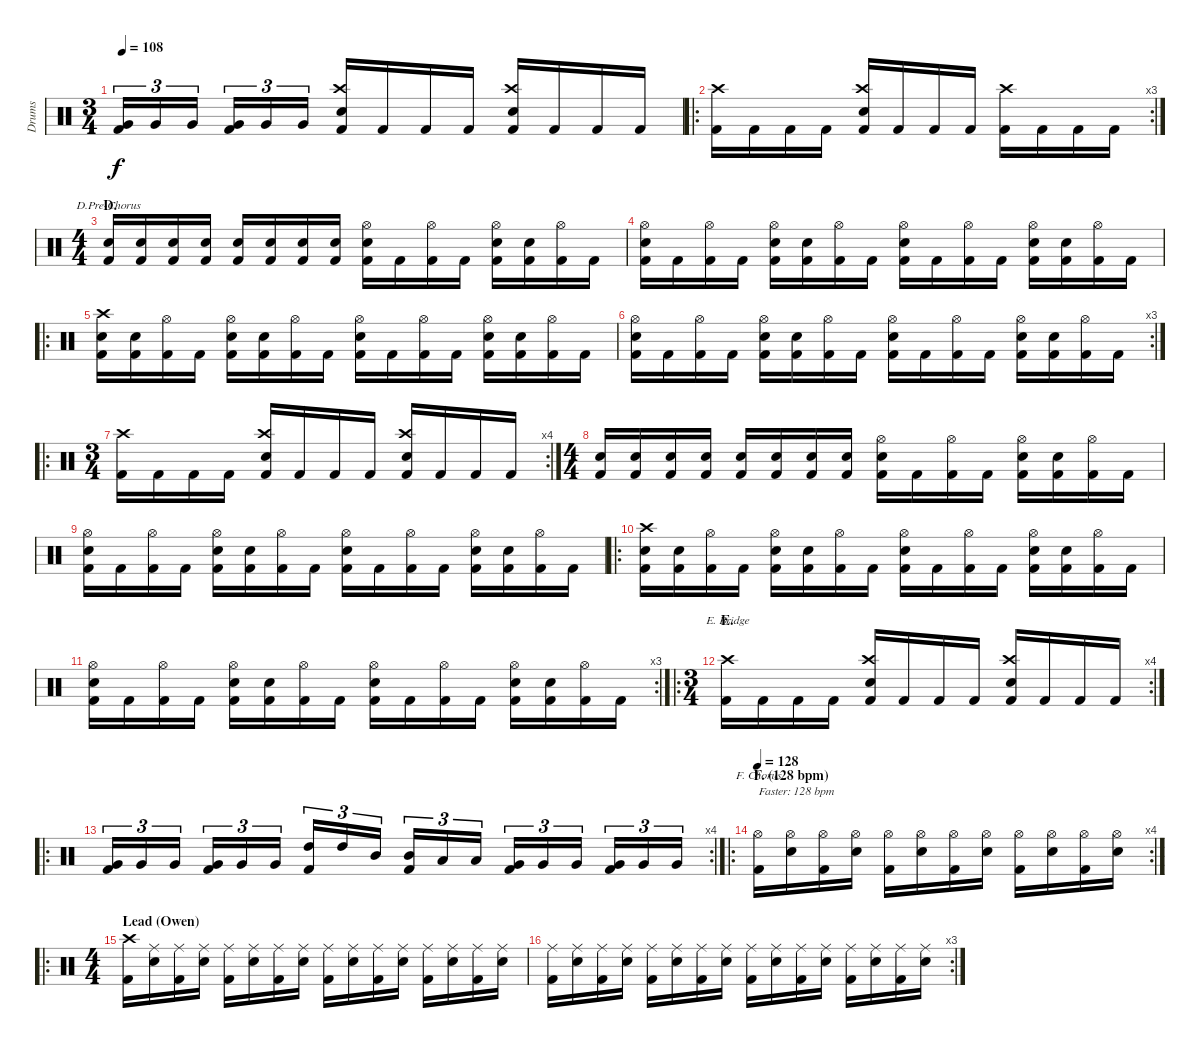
\track ("Drums" "Drums") {instrument percussion}
\staff {score}
\articulation defaults
\chord ("D.Pre-Chorus")
\chord ("E. Bridge")
\chord ("F. Chorus")
\ts (3 4)
\tempo 108
\clef neutral
\ks c
("Very Low Tom (hit)" "Kick (hit) 2").16{tu (3 2) dy f} "Very Low Tom (hit)".16{tu (3 2)} "Very Low Tom (hit)".16{tu (3 2)} ("Very Low Tom (hit)" "Kick (hit) 2").16{tu (3 2)} "Very Low Tom (hit)".16{tu (3 2)} "Very Low Tom (hit)".16{tu (3 2)} ("Crash high (hit)" "Electric Snare (hit)" "Kick (hit) 2").16 "Kick (hit) 2".16 "Kick (hit) 2".16 "Kick (hit) 2".16 ("Crash high (hit)" "Electric Snare (hit)" "Kick (hit) 2").16 "Kick (hit) 2".16 "Kick (hit) 2".16 "Kick (hit) 2".16 |
\ro
\rc 3
("Crash high (hit)" "Kick (hit) 2").16 "Kick (hit) 2".16 "Kick (hit) 2".16 "Kick (hit) 2".16 ("Crash high (hit)" "Electric Snare (hit)" "Kick (hit) 2").16 "Kick (hit) 2".16 "Kick (hit) 2".16 "Kick (hit) 2".16 ("Crash high (hit)" "Kick (hit) 2").16 "Kick (hit) 2".16 "Kick (hit) 2".16 "Kick (hit) 2".16 |
\ts (4 4)
\section ("" "D.")
("Electric Snare (hit)" "Kick (hit) 2").16{ch "D.Pre-Chorus"} ("Electric Snare (hit)" "Kick (hit) 2").16 ("Electric Snare (hit)" "Kick (hit) 2").16 ("Electric Snare (hit)" "Kick (hit) 2").16 ("Electric Snare (hit)" "Kick (hit) 2").16 ("Electric Snare (hit)" "Kick (hit) 2").16 ("Electric Snare (hit)" "Kick (hit) 2").16 ("Electric Snare (hit)" "Kick (hit) 2").16 ("Hi-Hat (open)" "Electric Snare (hit)" "Kick (hit) 2").16 "Kick (hit) 2".16 ("Hi-Hat (open)" "Kick (hit) 2").16 "Kick (hit) 2".16 ("Hi-Hat (open)" "Electric Snare (hit)" "Kick (hit) 2").16 ("Electric Snare (hit)" "Kick (hit) 2").16 ("Hi-Hat (open)" "Kick (hit) 2").16 "Kick (hit) 2".16 |
("Hi-Hat (open)" "Electric Snare (hit)" "Kick (hit) 2").16 "Kick (hit) 2".16 ("Hi-Hat (open)" "Kick (hit) 2").16 "Kick (hit) 2".16 ("Hi-Hat (open)" "Electric Snare (hit)" "Kick (hit) 2").16 ("Electric Snare (hit)" "Kick (hit) 2").16 ("Hi-Hat (open)" "Kick (hit) 2").16 "Kick (hit) 2".16 ("Hi-Hat (open)" "Electric Snare (hit)" "Kick (hit) 2").16 "Kick (hit) 2".16 ("Hi-Hat (open)" "Kick (hit) 2").16 "Kick (hit) 2".16 ("Hi-Hat (open)" "Electric Snare (hit)" "Kick (hit) 2").16 ("Electric Snare (hit)" "Kick (hit) 2").16 ("Hi-Hat (open)" "Kick (hit) 2").16 "Kick (hit) 2".16 |
\ro
("Crash high (hit)" "Electric Snare (hit)" "Kick (hit) 2").16 ("Electric Snare (hit)" "Kick (hit) 2").16 ("Hi-Hat (open)" "Kick (hit) 2").16 "Kick (hit) 2".16 ("Hi-Hat (open)" "Electric Snare (hit)" "Kick (hit) 2").16 ("Electric Snare (hit)" "Kick (hit) 2").16 ("Hi-Hat (open)" "Kick (hit) 2").16 "Kick (hit) 2".16 ("Hi-Hat (open)" "Electric Snare (hit)" "Kick (hit) 2").16 "Kick (hit) 2".16 ("Hi-Hat (open)" "Kick (hit) 2").16 "Kick (hit) 2".16 ("Hi-Hat (open)" "Electric Snare (hit)" "Kick (hit) 2").16 ("Electric Snare (hit)" "Kick (hit) 2").16 ("Hi-Hat (open)" "Kick (hit) 2").16 "Kick (hit) 2".16 |
\rc 3
("Hi-Hat (open)" "Electric Snare (hit)" "Kick (hit) 2").16 "Kick (hit) 2".16 ("Hi-Hat (open)" "Kick (hit) 2").16 "Kick (hit) 2".16 ("Hi-Hat (open)" "Electric Snare (hit)" "Kick (hit) 2").16 ("Electric Snare (hit)" "Kick (hit) 2").16 ("Hi-Hat (open)" "Kick (hit) 2").16 "Kick (hit) 2".16 ("Hi-Hat (open)" "Electric Snare (hit)" "Kick (hit) 2").16 "Kick (hit) 2".16 ("Hi-Hat (open)" "Kick (hit) 2").16 "Kick (hit) 2".16 ("Hi-Hat (open)" "Electric Snare (hit)" "Kick (hit) 2").16 ("Electric Snare (hit)" "Kick (hit) 2").16 ("Hi-Hat (open)" "Kick (hit) 2").16 "Kick (hit) 2".16 |
\ro
\rc 4
\ts (3 4)
("Crash high (hit)" "Kick (hit) 2").16 "Kick (hit) 2".16 "Kick (hit) 2".16 "Kick (hit) 2".16 ("Crash high (hit)" "Electric Snare (hit)" "Kick (hit) 2").16 "Kick (hit) 2".16 "Kick (hit) 2".16 "Kick (hit) 2".16 ("Crash high (hit)" "Electric Snare (hit)" "Kick (hit) 2").16 "Kick (hit) 2".16 "Kick (hit) 2".16 "Kick (hit) 2".16 |
\ts (4 4)
("Electric Snare (hit)" "Kick (hit) 2").16 ("Electric Snare (hit)" "Kick (hit) 2").16 ("Electric Snare (hit)" "Kick (hit) 2").16 ("Electric Snare (hit)" "Kick (hit) 2").16 ("Electric Snare (hit)" "Kick (hit) 2").16 ("Electric Snare (hit)" "Kick (hit) 2").16 ("Electric Snare (hit)" "Kick (hit) 2").16 ("Electric Snare (hit)" "Kick (hit) 2").16 ("Hi-Hat (open)" "Electric Snare (hit)" "Kick (hit) 2").16 "Kick (hit) 2".16 ("Hi-Hat (open)" "Kick (hit) 2").16 "Kick (hit) 2".16 ("Hi-Hat (open)" "Electric Snare (hit)" "Kick (hit) 2").16 ("Electric Snare (hit)" "Kick (hit) 2").16 ("Hi-Hat (open)" "Kick (hit) 2").16 "Kick (hit) 2".16 |
("Hi-Hat (open)" "Electric Snare (hit)" "Kick (hit) 2").16 "Kick (hit) 2".16 ("Hi-Hat (open)" "Kick (hit) 2").16 "Kick (hit) 2".16 ("Hi-Hat (open)" "Electric Snare (hit)" "Kick (hit) 2").16 ("Electric Snare (hit)" "Kick (hit) 2").16 ("Hi-Hat (open)" "Kick (hit) 2").16 "Kick (hit) 2".16 ("Hi-Hat (open)" "Electric Snare (hit)" "Kick (hit) 2").16 "Kick (hit) 2".16 ("Hi-Hat (open)" "Kick (hit) 2").16 "Kick (hit) 2".16 ("Hi-Hat (open)" "Electric Snare (hit)" "Kick (hit) 2").16 ("Electric Snare (hit)" "Kick (hit) 2").16 ("Hi-Hat (open)" "Kick (hit) 2").16 "Kick (hit) 2".16 |
\ro
("Crash high (hit)" "Electric Snare (hit)" "Kick (hit) 2").16 ("Electric Snare (hit)" "Kick (hit) 2").16 ("Hi-Hat (open)" "Kick (hit) 2").16 "Kick (hit) 2".16 ("Hi-Hat (open)" "Electric Snare (hit)" "Kick (hit) 2").16 ("Electric Snare (hit)" "Kick (hit) 2").16 ("Hi-Hat (open)" "Kick (hit) 2").16 "Kick (hit) 2".16 ("Hi-Hat (open)" "Electric Snare (hit)" "Kick (hit) 2").16 "Kick (hit) 2".16 ("Hi-Hat (open)" "Kick (hit) 2").16 "Kick (hit) 2".16 ("Hi-Hat (open)" "Electric Snare (hit)" "Kick (hit) 2").16 ("Electric Snare (hit)" "Kick (hit) 2").16 ("Hi-Hat (open)" "Kick (hit) 2").16 "Kick (hit) 2".16 |
\rc 3
("Hi-Hat (open)" "Electric Snare (hit)" "Kick (hit) 2").16 "Kick (hit) 2".16 ("Hi-Hat (open)" "Kick (hit) 2").16 "Kick (hit) 2".16 ("Hi-Hat (open)" "Electric Snare (hit)" "Kick (hit) 2").16 ("Electric Snare (hit)" "Kick (hit) 2").16 ("Hi-Hat (open)" "Kick (hit) 2").16 "Kick (hit) 2".16 ("Hi-Hat (open)" "Electric Snare (hit)" "Kick (hit) 2").16 "Kick (hit) 2".16 ("Hi-Hat (open)" "Kick (hit) 2").16 "Kick (hit) 2".16 ("Hi-Hat (open)" "Electric Snare (hit)" "Kick (hit) 2").16 ("Electric Snare (hit)" "Kick (hit) 2").16 ("Hi-Hat (open)" "Kick (hit) 2").16 "Kick (hit) 2".16 |
\ro
\rc 4
\ts (3 4)
\section ("" "E.")
("Crash high (hit)" "Kick (hit) 2").16{ch "E. Bridge"} "Kick (hit) 2".16 "Kick (hit) 2".16 "Kick (hit) 2".16 ("Crash high (hit)" "Electric Snare (hit)" "Kick (hit) 2").16 "Kick (hit) 2".16 "Kick (hit) 2".16 "Kick (hit) 2".16 ("Crash high (hit)" "Electric Snare (hit)" "Kick (hit) 2").16 "Kick (hit) 2".16 "Kick (hit) 2".16 "Kick (hit) 2".16 |
\ro
\rc 4
("Very Low Tom (hit)" "Kick (hit) 2").16{tu (3 2)} "Very Low Tom (hit)".16{tu (3 2)} "Very Low Tom (hit)".16{tu (3 2)} ("Very Low Tom (hit)" "Kick (hit) 2").16{tu (3 2)} "Very Low Tom (hit)".16{tu (3 2)} "Very Low Tom (hit)".16{tu (3 2)} ("High Tom (hit)" "Kick (hit) 2").16{tu (3 2)} "High Tom (hit)".16{tu (3 2)} "Mid Tom (hit)".16{tu (3 2)} ("Mid Tom (hit)" "Kick (hit) 2").16{tu (3 2)} "Low Tom (hit)".16{tu (3 2)} "Low Tom (hit)".16{tu (3 2)} ("Very Low Tom (hit)" "Kick (hit) 2").16{tu (3 2)} "Very Low Tom (hit)".16{tu (3 2)} "Very Low Tom (hit)".16{tu (3 2)} ("Very Low Tom (hit)" "Kick (hit) 2").16{tu (3 2)} "Very Low Tom (hit)".16{tu (3 2)} "Very Low Tom (hit)".16{tu (3 2)} |
\ro
\rc 4
\section ("" "F. (128 bpm)")
\tempo 128
("Hi-Hat (open)" "Kick (hit) 2").16{ch "F. Chorus" txt "Faster: 128 bpm"} ("Hi-Hat (open)" "Electric Snare (hit)").16 ("Hi-Hat (open)" "Kick (hit) 2").16 ("Hi-Hat (open)" "Electric Snare (hit)").16 ("Hi-Hat (open)" "Kick (hit) 2").16 ("Hi-Hat (open)" "Electric Snare (hit)").16 ("Hi-Hat (open)" "Kick (hit) 2").16 ("Hi-Hat (open)" "Electric Snare (hit)").16 ("Hi-Hat (open)" "Kick (hit) 2").16 ("Hi-Hat (open)" "Electric Snare (hit)").16 ("Hi-Hat (open)" "Kick (hit) 2").16 ("Hi-Hat (open)" "Electric Snare (hit)").16 |
\ro
\ts (4 4)
\section ("" "Lead (Owen)")
("Crash high (hit)" "Kick (hit) 2").16 ("Ride (middle)" "Electric Snare (hit)").16 ("Ride (middle)" "Kick (hit) 2").16 ("Ride (middle)" "Electric Snare (hit)").16 ("Ride (middle)" "Kick (hit) 2").16 ("Ride (middle)" "Electric Snare (hit)").16 ("Ride (middle)" "Kick (hit) 2").16 ("Ride (middle)" "Electric Snare (hit)").16 ("Ride (middle)" "Kick (hit) 2").16 ("Ride (middle)" "Electric Snare (hit)").16 ("Ride (middle)" "Kick (hit) 2").16 ("Ride (middle)" "Electric Snare (hit)").16 ("Ride (middle)" "Kick (hit) 2").16 ("Ride (middle)" "Electric Snare (hit)").16 ("Ride (middle)" "Kick (hit) 2").16 ("Ride (middle)" "Electric Snare (hit)").16 |
\rc 3
("Ride (middle)" "Kick (hit) 2").16 ("Ride (middle)" "Electric Snare (hit)").16 ("Ride (middle)" "Kick (hit) 2").16 ("Ride (middle)" "Electric Snare (hit)").16 ("Ride (middle)" "Kick (hit) 2").16 ("Ride (middle)" "Electric Snare (hit)").16 ("Ride (middle)" "Kick (hit) 2").16 ("Ride (middle)" "Electric Snare (hit)").16 ("Ride (middle)" "Kick (hit) 2").16 ("Ride (middle)" "Electric Snare (hit)").16 ("Ride (middle)" "Kick (hit) 2").16 ("Ride (middle)" "Electric Snare (hit)").16 ("Ride (middle)" "Kick (hit) 2").16 ("Ride (middle)" "Electric Snare (hit)").16 ("Ride (middle)" "Kick (hit) 2").16 ("Ride (middle)" "Electric Snare (hit)").16
